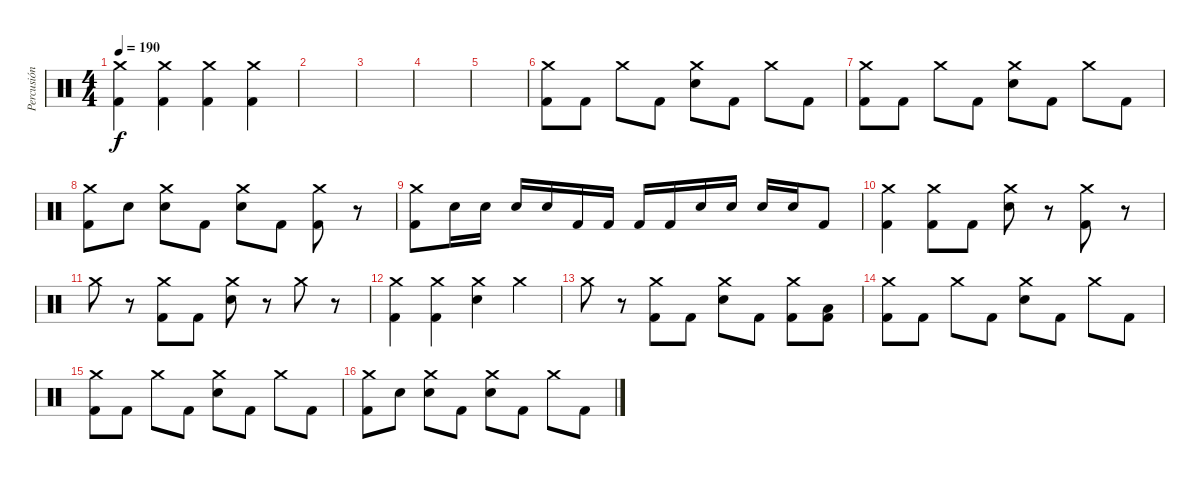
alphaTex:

\track ("Percusión" "Percusión") {instrument percussion}
\staff {score}
\articulation defaults
\ts (4 4)
\tempo 190
\clef neutral
\ks c
("Crash medium (hit)" "Kick (hit) 2").4{dy f} ("Crash medium (hit)" "Kick (hit) 2").4 ("Crash medium (hit)" "Kick (hit) 2").4 ("Crash medium (hit)" "Kick (hit) 2").4 |
|
|
|
|
("Crash medium (hit)" "Kick (hit) 2").8 "Kick (hit) 2".8 "Crash medium (hit)".8 "Kick (hit) 2".8 ("Crash medium (hit)" "Electric Snare (hit)").8 "Kick (hit) 2".8 "Crash medium (hit)".8 "Kick (hit) 2".8 |
("Crash medium (hit)" "Kick (hit) 2").8 "Kick (hit) 2".8 "Crash medium (hit)".8 "Kick (hit) 2".8 ("Crash medium (hit)" "Electric Snare (hit)").8 "Kick (hit) 2".8 "Crash medium (hit)".8 "Kick (hit) 2".8 |
("Crash medium (hit)" "Kick (hit) 2").8 "Electric Snare (hit)".8 ("Crash medium (hit)" "Electric Snare (hit)").8 "Kick (hit) 2".8 ("Crash medium (hit)" "Electric Snare (hit)").8 "Kick (hit) 2".8 ("Crash medium (hit)" "Kick (hit) 2").8 r.8 |
("Crash medium (hit)" "Kick (hit) 2").8 "Electric Snare (hit)".16 "Electric Snare (hit)".16 "Electric Snare (hit)".16 "Electric Snare (hit)".16 "Kick (hit) 2".16 "Kick (hit) 2".16 "Kick (hit) 2".16 "Kick (hit) 2".16 "Electric Snare (hit)".16 "Electric Snare (hit)".16 "Electric Snare (hit)".16 "Electric Snare (hit)".16 "Kick (hit) 2".8 |
("Crash medium (hit)" "Kick (hit) 2").4 ("Crash medium (hit)" "Kick (hit) 2").8 "Kick (hit) 2".8 ("Crash medium (hit)" "Electric Snare (hit)").8 r.8 ("Crash medium (hit)" "Kick (hit) 2").8 r.8 |
"Crash medium (hit)".8 r.8 ("Crash medium (hit)" "Kick (hit) 2").8 "Kick (hit) 2".8 ("Crash medium (hit)" "Electric Snare (hit)").8 r.8 "Crash medium (hit)".8 r.8 |
("Crash medium (hit)" "Kick (hit) 2").4 ("Crash medium (hit)" "Kick (hit) 2").4 ("Crash medium (hit)" "Electric Snare (hit)").4 "Crash medium (hit)".4 |
"Crash medium (hit)".8 r.8 ("Crash medium (hit)" "Kick (hit) 2").8 "Kick (hit) 2".8 ("Crash medium (hit)" "Electric Snare (hit)").8 "Kick (hit) 2".8 ("Crash medium (hit)" "Kick (hit) 2").8 ("Low Floor Tom (hit)" "Kick (hit) 2").8 |
("Crash medium (hit)" "Kick (hit) 2").8 "Kick (hit) 2".8 "Crash medium (hit)".8 "Kick (hit) 2".8 ("Crash medium (hit)" "Electric Snare (hit)").8 "Kick (hit) 2".8 "Crash medium (hit)".8 "Kick (hit) 2".8 |
("Crash medium (hit)" "Kick (hit) 2").8 "Kick (hit) 2".8 "Crash medium (hit)".8 "Kick (hit) 2".8 ("Crash medium (hit)" "Electric Snare (hit)").8 "Kick (hit) 2".8 "Crash medium (hit)".8 "Kick (hit) 2".8 |
("Crash medium (hit)" "Kick (hit) 2").8 "Electric Snare (hit)".8 ("Crash medium (hit)" "Electric Snare (hit)").8 "Kick (hit) 2".8 ("Crash medium (hit)" "Electric Snare (hit)").8 "Kick (hit) 2".8 "Crash medium (hit)".8 "Kick (hit) 2".8
